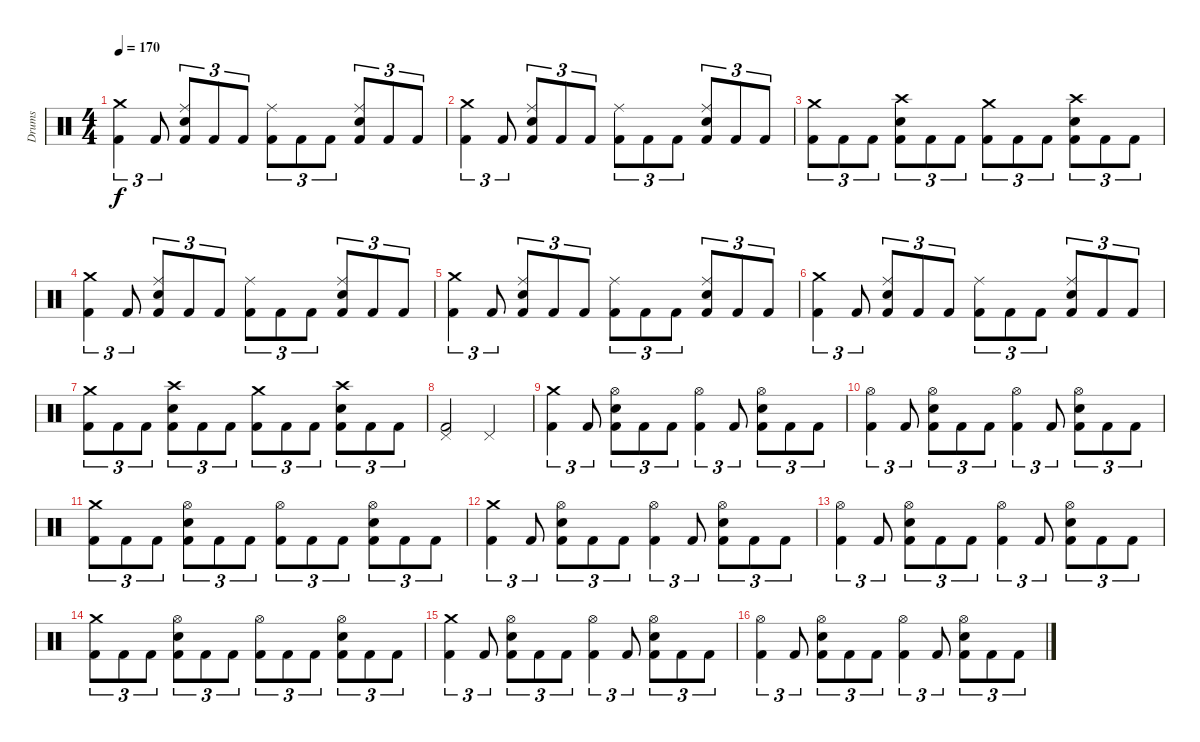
\track ("Drums" "Drums") {instrument percussion}
\staff {score}
\articulation defaults
\ts (4 4)
\tempo 170
\clef neutral
\ks c
("Crash medium (hit)" "Kick (hit) 2").4{tu (3 2) dy f} "Kick (hit) 2".8{tu (3 2)} ("Ride (middle)" "Snare (hit) 2" "Kick (hit) 2").8{tu (3 2)} "Kick (hit) 2".8{tu (3 2)} "Kick (hit) 2".8{tu (3 2)} ("Ride (middle)" "Kick (hit) 2").8{tu (3 2)} "Kick (hit) 2".8{tu (3 2)} "Kick (hit) 2".8{tu (3 2)} ("Ride (middle)" "Snare (hit) 2" "Kick (hit) 2").8{tu (3 2)} "Kick (hit) 2".8{tu (3 2)} "Kick (hit) 2".8{tu (3 2)} |
("Crash medium (hit)" "Kick (hit) 2").4{tu (3 2)} "Kick (hit) 2".8{tu (3 2)} ("Ride (middle)" "Snare (hit) 2" "Kick (hit) 2").8{tu (3 2)} "Kick (hit) 2".8{tu (3 2)} "Kick (hit) 2".8{tu (3 2)} ("Ride (middle)" "Kick (hit) 2").8{tu (3 2)} "Kick (hit) 2".8{tu (3 2)} "Kick (hit) 2".8{tu (3 2)} ("Ride (middle)" "Snare (hit) 2" "Kick (hit) 2").8{tu (3 2)} "Kick (hit) 2".8{tu (3 2)} "Kick (hit) 2".8{tu (3 2)} |
("Crash medium (hit)" "Kick (hit) 2").8{tu (3 2)} "Kick (hit) 2".8{tu (3 2)} "Kick (hit) 2".8{tu (3 2)} ("Crash high (hit)" "Snare (hit) 2" "Kick (hit) 2").8{tu (3 2)} "Kick (hit) 2".8{tu (3 2)} "Kick (hit) 2".8{tu (3 2)} ("Crash medium (hit)" "Kick (hit) 2").8{tu (3 2)} "Kick (hit) 2".8{tu (3 2)} "Kick (hit) 2".8{tu (3 2)} ("Crash high (hit)" "Snare (hit) 2" "Kick (hit) 2").8{tu (3 2)} "Kick (hit) 2".8{tu (3 2)} "Kick (hit) 2".8{tu (3 2)} |
("Crash medium (hit)" "Kick (hit) 2").4{tu (3 2)} "Kick (hit) 2".8{tu (3 2)} ("Ride (middle)" "Snare (hit) 2" "Kick (hit) 2").8{tu (3 2)} "Kick (hit) 2".8{tu (3 2)} "Kick (hit) 2".8{tu (3 2)} ("Ride (middle)" "Kick (hit) 2").8{tu (3 2)} "Kick (hit) 2".8{tu (3 2)} "Kick (hit) 2".8{tu (3 2)} ("Ride (middle)" "Snare (hit) 2" "Kick (hit) 2").8{tu (3 2)} "Kick (hit) 2".8{tu (3 2)} "Kick (hit) 2".8{tu (3 2)} |
("Crash medium (hit)" "Kick (hit) 2").4{tu (3 2)} "Kick (hit) 2".8{tu (3 2)} ("Ride (middle)" "Snare (hit) 2" "Kick (hit) 2").8{tu (3 2)} "Kick (hit) 2".8{tu (3 2)} "Kick (hit) 2".8{tu (3 2)} ("Ride (middle)" "Kick (hit) 2").8{tu (3 2)} "Kick (hit) 2".8{tu (3 2)} "Kick (hit) 2".8{tu (3 2)} ("Ride (middle)" "Snare (hit) 2" "Kick (hit) 2").8{tu (3 2)} "Kick (hit) 2".8{tu (3 2)} "Kick (hit) 2".8{tu (3 2)} |
("Crash medium (hit)" "Kick (hit) 2").4{tu (3 2)} "Kick (hit) 2".8{tu (3 2)} ("Ride (middle)" "Snare (hit) 2" "Kick (hit) 2").8{tu (3 2)} "Kick (hit) 2".8{tu (3 2)} "Kick (hit) 2".8{tu (3 2)} ("Ride (middle)" "Kick (hit) 2").8{tu (3 2)} "Kick (hit) 2".8{tu (3 2)} "Kick (hit) 2".8{tu (3 2)} ("Ride (middle)" "Snare (hit) 2" "Kick (hit) 2").8{tu (3 2)} "Kick (hit) 2".8{tu (3 2)} "Kick (hit) 2".8{tu (3 2)} |
("Crash medium (hit)" "Kick (hit) 2").8{tu (3 2)} "Kick (hit) 2".8{tu (3 2)} "Kick (hit) 2".8{tu (3 2)} ("Crash high (hit)" "Snare (hit) 2" "Kick (hit) 2").8{tu (3 2)} "Kick (hit) 2".8{tu (3 2)} "Kick (hit) 2".8{tu (3 2)} ("Crash medium (hit)" "Kick (hit) 2").8{tu (3 2)} "Kick (hit) 2".8{tu (3 2)} "Kick (hit) 2".8{tu (3 2)} ("Crash high (hit)" "Snare (hit) 2" "Kick (hit) 2").8{tu (3 2)} "Kick (hit) 2".8{tu (3 2)} "Kick (hit) 2".8{tu (3 2)} |
("Pedal Hi-Hat (hit)" "Kick (hit) 2").2 "Pedal Hi-Hat (hit)".2 |
("Crash medium (hit)" "Kick (hit) 2").4{tu (3 2)} "Kick (hit) 2".8{tu (3 2)} ("Hi-Hat (open)" "Snare (hit) 2" "Kick (hit) 2").8{tu (3 2)} "Kick (hit) 2".8{tu (3 2)} "Kick (hit) 2".8{tu (3 2)} ("Hi-Hat (open)" "Kick (hit) 2").4{tu (3 2)} "Kick (hit) 2".8{tu (3 2)} ("Hi-Hat (open)" "Snare (hit) 2" "Kick (hit) 2").8{tu (3 2)} "Kick (hit) 2".8{tu (3 2)} "Kick (hit) 2".8{tu (3 2)} |
("Hi-Hat (open)" "Kick (hit) 2").4{tu (3 2)} "Kick (hit) 2".8{tu (3 2)} ("Hi-Hat (open)" "Snare (hit) 2" "Kick (hit) 2").8{tu (3 2)} "Kick (hit) 2".8{tu (3 2)} "Kick (hit) 2".8{tu (3 2)} ("Hi-Hat (open)" "Kick (hit) 2").4{tu (3 2)} "Kick (hit) 2".8{tu (3 2)} ("Hi-Hat (open)" "Snare (hit) 2" "Kick (hit) 2").8{tu (3 2)} "Kick (hit) 2".8{tu (3 2)} "Kick (hit) 2".8{tu (3 2)} |
("Crash medium (hit)" "Kick (hit) 2").8{tu (3 2)} "Kick (hit) 2".8{tu (3 2)} "Kick (hit) 2".8{tu (3 2)} ("Hi-Hat (open)" "Snare (hit) 2" "Kick (hit) 2").8{tu (3 2)} "Kick (hit) 2".8{tu (3 2)} "Kick (hit) 2".8{tu (3 2)} ("Hi-Hat (open)" "Kick (hit) 2").8{tu (3 2)} "Kick (hit) 2".8{tu (3 2)} "Kick (hit) 2".8{tu (3 2)} ("Hi-Hat (open)" "Snare (hit) 2" "Kick (hit) 2").8{tu (3 2)} "Kick (hit) 2".8{tu (3 2)} "Kick (hit) 2".8{tu (3 2)} |
("Crash medium (hit)" "Kick (hit) 2").4{tu (3 2)} "Kick (hit) 2".8{tu (3 2)} ("Hi-Hat (open)" "Snare (hit) 2" "Kick (hit) 2").8{tu (3 2)} "Kick (hit) 2".8{tu (3 2)} "Kick (hit) 2".8{tu (3 2)} ("Hi-Hat (open)" "Kick (hit) 2").4{tu (3 2)} "Kick (hit) 2".8{tu (3 2)} ("Hi-Hat (open)" "Snare (hit) 2" "Kick (hit) 2").8{tu (3 2)} "Kick (hit) 2".8{tu (3 2)} "Kick (hit) 2".8{tu (3 2)} |
("Hi-Hat (open)" "Kick (hit) 2").4{tu (3 2)} "Kick (hit) 2".8{tu (3 2)} ("Hi-Hat (open)" "Snare (hit) 2" "Kick (hit) 2").8{tu (3 2)} "Kick (hit) 2".8{tu (3 2)} "Kick (hit) 2".8{tu (3 2)} ("Hi-Hat (open)" "Kick (hit) 2").4{tu (3 2)} "Kick (hit) 2".8{tu (3 2)} ("Hi-Hat (open)" "Snare (hit) 2" "Kick (hit) 2").8{tu (3 2)} "Kick (hit) 2".8{tu (3 2)} "Kick (hit) 2".8{tu (3 2)} |
("Crash medium (hit)" "Kick (hit) 2").8{tu (3 2)} "Kick (hit) 2".8{tu (3 2)} "Kick (hit) 2".8{tu (3 2)} ("Hi-Hat (open)" "Snare (hit) 2" "Kick (hit) 2").8{tu (3 2)} "Kick (hit) 2".8{tu (3 2)} "Kick (hit) 2".8{tu (3 2)} ("Hi-Hat (open)" "Kick (hit) 2").8{tu (3 2)} "Kick (hit) 2".8{tu (3 2)} "Kick (hit) 2".8{tu (3 2)} ("Hi-Hat (open)" "Snare (hit) 2" "Kick (hit) 2").8{tu (3 2)} "Kick (hit) 2".8{tu (3 2)} "Kick (hit) 2".8{tu (3 2)} |
("Crash medium (hit)" "Kick (hit) 2").4{tu (3 2)} "Kick (hit) 2".8{tu (3 2)} ("Hi-Hat (open)" "Snare (hit) 2" "Kick (hit) 2").8{tu (3 2)} "Kick (hit) 2".8{tu (3 2)} "Kick (hit) 2".8{tu (3 2)} ("Hi-Hat (open)" "Kick (hit) 2").4{tu (3 2)} "Kick (hit) 2".8{tu (3 2)} ("Hi-Hat (open)" "Snare (hit) 2" "Kick (hit) 2").8{tu (3 2)} "Kick (hit) 2".8{tu (3 2)} "Kick (hit) 2".8{tu (3 2)} |
("Hi-Hat (open)" "Kick (hit) 2").4{tu (3 2)} "Kick (hit) 2".8{tu (3 2)} ("Hi-Hat (open)" "Snare (hit) 2" "Kick (hit) 2").8{tu (3 2)} "Kick (hit) 2".8{tu (3 2)} "Kick (hit) 2".8{tu (3 2)} ("Hi-Hat (open)" "Kick (hit) 2").4{tu (3 2)} "Kick (hit) 2".8{tu (3 2)} ("Hi-Hat (open)" "Snare (hit) 2" "Kick (hit) 2").8{tu (3 2)} "Kick (hit) 2".8{tu (3 2)} "Kick (hit) 2".8{tu (3 2)}
